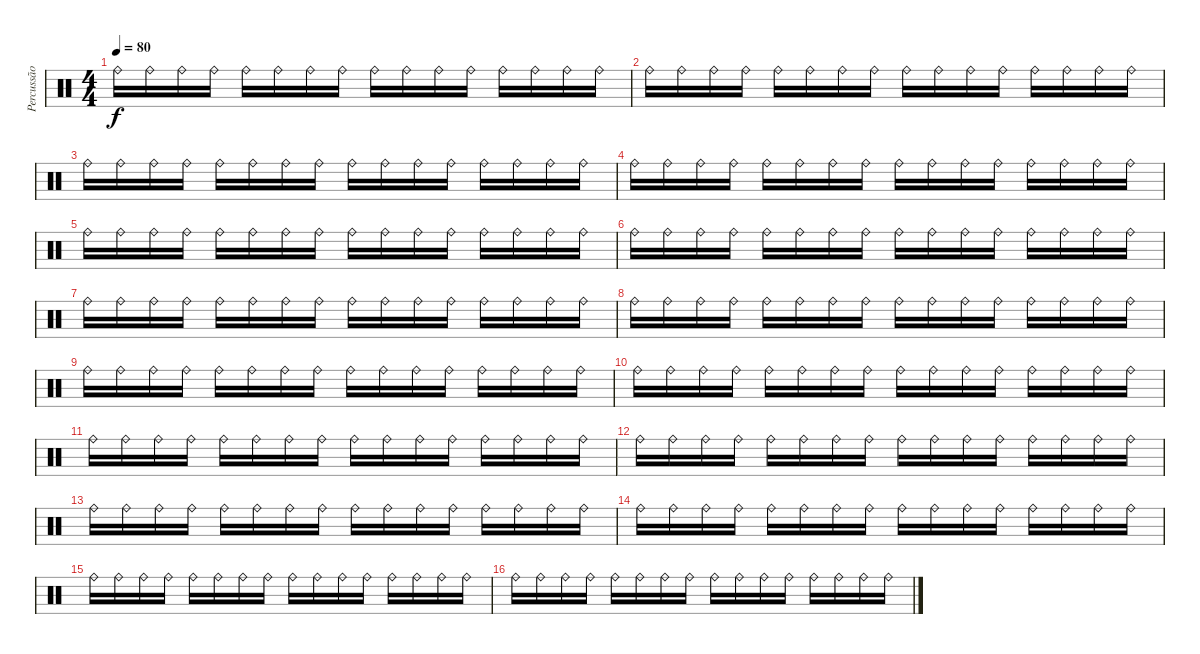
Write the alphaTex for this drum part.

\track ("Percussão" "Percussão") {instrument percussion}
\staff {score}
\articulation defaults
\ts (4 4)
\tempo 80
\clef neutral
\ks c "Ride (bell)".16{dy f} "Ride (bell)".16 "Ride (bell)".16 "Ride (bell)".16 "Ride (bell)".16 "Ride (bell)".16 "Ride (bell)".16 "Ride (bell)".16 "Ride (bell)".16 "Ride (bell)".16 "Ride (bell)".16 "Ride (bell)".16 "Ride (bell)".16 "Ride (bell)".16 "Ride (bell)".16 "Ride (bell)".16
|
"Ride (bell)".16 "Ride (bell)".16 "Ride (bell)".16 "Ride (bell)".16 "Ride (bell)".16 "Ride (bell)".16 "Ride (bell)".16 "Ride (bell)".16 "Ride (bell)".16 "Ride (bell)".16 "Ride (bell)".16 "Ride (bell)".16 "Ride (bell)".16 "Ride (bell)".16 "Ride (bell)".16 "Ride (bell)".16 |
"Ride (bell)".16 "Ride (bell)".16 "Ride (bell)".16 "Ride (bell)".16 "Ride (bell)".16 "Ride (bell)".16 "Ride (bell)".16 "Ride (bell)".16 "Ride (bell)".16 "Ride (bell)".16 "Ride (bell)".16 "Ride (bell)".16 "Ride (bell)".16 "Ride (bell)".16 "Ride (bell)".16 "Ride (bell)".16 |
"Ride (bell)".16 "Ride (bell)".16 "Ride (bell)".16 "Ride (bell)".16 "Ride (bell)".16 "Ride (bell)".16 "Ride (bell)".16 "Ride (bell)".16 "Ride (bell)".16 "Ride (bell)".16 "Ride (bell)".16 "Ride (bell)".16 "Ride (bell)".16 "Ride (bell)".16 "Ride (bell)".16 "Ride (bell)".16 |
"Ride (bell)".16 "Ride (bell)".16 "Ride (bell)".16 "Ride (bell)".16 "Ride (bell)".16 "Ride (bell)".16 "Ride (bell)".16 "Ride (bell)".16 "Ride (bell)".16 "Ride (bell)".16 "Ride (bell)".16 "Ride (bell)".16 "Ride (bell)".16 "Ride (bell)".16 "Ride (bell)".16 "Ride (bell)".16 |
"Ride (bell)".16 "Ride (bell)".16 "Ride (bell)".16 "Ride (bell)".16 "Ride (bell)".16 "Ride (bell)".16 "Ride (bell)".16 "Ride (bell)".16 "Ride (bell)".16 "Ride (bell)".16 "Ride (bell)".16 "Ride (bell)".16 "Ride (bell)".16 "Ride (bell)".16 "Ride (bell)".16 "Ride (bell)".16 |
"Ride (bell)".16 "Ride (bell)".16 "Ride (bell)".16 "Ride (bell)".16 "Ride (bell)".16 "Ride (bell)".16 "Ride (bell)".16 "Ride (bell)".16 "Ride (bell)".16 "Ride (bell)".16 "Ride (bell)".16 "Ride (bell)".16 "Ride (bell)".16 "Ride (bell)".16 "Ride (bell)".16 "Ride (bell)".16 |
"Ride (bell)".16 "Ride (bell)".16 "Ride (bell)".16 "Ride (bell)".16 "Ride (bell)".16 "Ride (bell)".16 "Ride (bell)".16 "Ride (bell)".16 "Ride (bell)".16 "Ride (bell)".16 "Ride (bell)".16 "Ride (bell)".16 "Ride (bell)".16 "Ride (bell)".16 "Ride (bell)".16 "Ride (bell)".16 |
"Ride (bell)".16 "Ride (bell)".16 "Ride (bell)".16 "Ride (bell)".16 "Ride (bell)".16 "Ride (bell)".16 "Ride (bell)".16 "Ride (bell)".16 "Ride (bell)".16 "Ride (bell)".16 "Ride (bell)".16 "Ride (bell)".16 "Ride (bell)".16 "Ride (bell)".16 "Ride (bell)".16 "Ride (bell)".16 |
"Ride (bell)".16 "Ride (bell)".16 "Ride (bell)".16 "Ride (bell)".16 "Ride (bell)".16 "Ride (bell)".16 "Ride (bell)".16 "Ride (bell)".16 "Ride (bell)".16 "Ride (bell)".16 "Ride (bell)".16 "Ride (bell)".16 "Ride (bell)".16 "Ride (bell)".16 "Ride (bell)".16 "Ride (bell)".16 |
"Ride (bell)".16 "Ride (bell)".16 "Ride (bell)".16 "Ride (bell)".16 "Ride (bell)".16 "Ride (bell)".16 "Ride (bell)".16 "Ride (bell)".16 "Ride (bell)".16 "Ride (bell)".16 "Ride (bell)".16 "Ride (bell)".16 "Ride (bell)".16 "Ride (bell)".16 "Ride (bell)".16 "Ride (bell)".16 |
"Ride (bell)".16 "Ride (bell)".16 "Ride (bell)".16 "Ride (bell)".16 "Ride (bell)".16 "Ride (bell)".16 "Ride (bell)".16 "Ride (bell)".16 "Ride (bell)".16 "Ride (bell)".16 "Ride (bell)".16 "Ride (bell)".16 "Ride (bell)".16 "Ride (bell)".16 "Ride (bell)".16 "Ride (bell)".16 |
"Ride (bell)".16 "Ride (bell)".16 "Ride (bell)".16 "Ride (bell)".16 "Ride (bell)".16 "Ride (bell)".16 "Ride (bell)".16 "Ride (bell)".16 "Ride (bell)".16 "Ride (bell)".16 "Ride (bell)".16 "Ride (bell)".16 "Ride (bell)".16 "Ride (bell)".16 "Ride (bell)".16 "Ride (bell)".16 |
"Ride (bell)".16 "Ride (bell)".16 "Ride (bell)".16 "Ride (bell)".16 "Ride (bell)".16 "Ride (bell)".16 "Ride (bell)".16 "Ride (bell)".16 "Ride (bell)".16 "Ride (bell)".16 "Ride (bell)".16 "Ride (bell)".16 "Ride (bell)".16 "Ride (bell)".16 "Ride (bell)".16 "Ride (bell)".16 |
"Ride (bell)".16 "Ride (bell)".16 "Ride (bell)".16 "Ride (bell)".16 "Ride (bell)".16 "Ride (bell)".16 "Ride (bell)".16 "Ride (bell)".16 "Ride (bell)".16 "Ride (bell)".16 "Ride (bell)".16 "Ride (bell)".16 "Ride (bell)".16 "Ride (bell)".16 "Ride (bell)".16 "Ride (bell)".16 |
"Ride (bell)".16 "Ride (bell)".16 "Ride (bell)".16 "Ride (bell)".16 "Ride (bell)".16 "Ride (bell)".16 "Ride (bell)".16 "Ride (bell)".16 "Ride (bell)".16 "Ride (bell)".16 "Ride (bell)".16 "Ride (bell)".16 "Ride (bell)".16 "Ride (bell)".16 "Ride (bell)".16 "Ride (bell)".16
